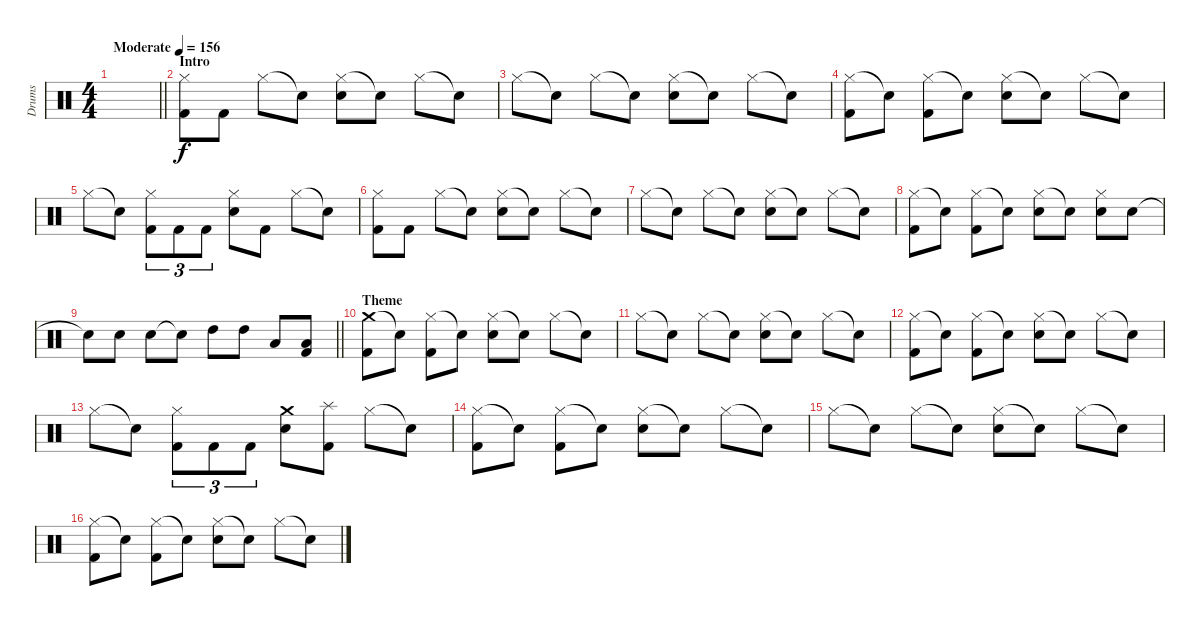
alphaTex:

\track ("Drums" "Drums") {instrument percussion}
\staff {score}
\articulation defaults
\ts (4 4)
\tempo (156 "Moderate")
\clef neutral
\barLineRight lightlight
\ks c
|
\section ("" "Intro")
("Hi-Hat (closed)" "Kick (hit) 2").8 "Kick (hit) 2".8 "Hi-Hat (closed)".8 "Snare (hit)"{t}.8 ("Hi-Hat (closed)" "Snare (hit) 2").8 "Snare (hit)"{t}.8 "Hi-Hat (closed)".8 "Snare (hit)"{t}.8 |
"Hi-Hat (closed)".8 "Snare (hit)"{t}.8 "Hi-Hat (closed)".8 "Snare (hit)"{t}.8 ("Hi-Hat (closed)" "Snare (hit) 2").8 "Snare (hit)"{t}.8 "Hi-Hat (closed)".8 "Snare (hit)"{t}.8 |
("Hi-Hat (closed)" "Kick (hit) 2").8 "Snare (hit)"{t}.8 ("Hi-Hat (closed)" "Kick (hit) 2").8 "Snare (hit)"{t}.8 ("Hi-Hat (closed)" "Snare (hit) 2").8 "Snare (hit)"{t}.8 "Hi-Hat (closed)".8 "Snare (hit)"{t}.8 |
"Hi-Hat (closed)".8 "Snare (hit)"{t}.8 ("Hi-Hat (closed)" "Kick (hit) 2").8{tu (3 2)} "Kick (hit) 2".8{tu (3 2)} "Kick (hit) 2".8{tu (3 2)} ("Hi-Hat (closed)" "Snare (hit) 2").8 "Kick (hit) 2".8 "Hi-Hat (closed)".8 "Snare (hit)"{t}.8 |
("Hi-Hat (closed)" "Kick (hit) 2").8 "Kick (hit) 2".8 "Hi-Hat (closed)".8 "Snare (hit)"{t}.8 ("Hi-Hat (closed)" "Snare (hit) 2").8 "Snare (hit)"{t}.8 "Hi-Hat (closed)".8 "Snare (hit)"{t}.8 |
"Hi-Hat (closed)".8 "Snare (hit)"{t}.8 "Hi-Hat (closed)".8 "Snare (hit)"{t}.8 ("Hi-Hat (closed)" "Snare (hit) 2").8 "Snare (hit)"{t}.8 "Hi-Hat (closed)".8 "Snare (hit)"{t}.8 |
("Hi-Hat (closed)" "Kick (hit) 2").8 "Snare (hit)"{t}.8 ("Hi-Hat (closed)" "Kick (hit) 2").8 "Snare (hit)"{t}.8 ("Hi-Hat (closed)" "Snare (hit) 2").8 "Snare (hit)"{t}.8 ("Hi-Hat (closed)" "Snare (hit) 2").8 "Snare (hit) 2".8 |
\barLineRight lightlight "Snare (hit)"{t}.8 "Snare (hit) 2".8 "Snare (hit) 2".8 "Snare (hit)"{t}.8 "High Tom (hit)".8 "High Tom (hit)".8 "Low Tom (hit)".8
("Low Tom (hit)" "Kick (hit) 2").8 |
\section ("" "Theme")
("Crash medium (hit)" "Kick (hit) 2").8 "Snare (hit)"{t}.8 ("Hi-Hat (closed)" "Kick (hit) 2").8 "Snare (hit)"{t}.8 ("Hi-Hat (closed)" "Snare (hit) 2").8 "Snare (hit)"{t}.8 "Hi-Hat (closed)".8 "Snare (hit)"{t}.8 |
"Hi-Hat (closed)".8 "Snare (hit)"{t}.8 "Hi-Hat (closed)".8 "Snare (hit)"{t}.8 ("Hi-Hat (closed)" "Snare (hit) 2").8 "Snare (hit)"{t}.8 "Hi-Hat (closed)".8 "Snare (hit)"{t}.8 |
("Hi-Hat (closed)" "Kick (hit) 2").8 "Snare (hit)"{t}.8 ("Hi-Hat (closed)" "Kick (hit) 2").8 "Snare (hit)"{t}.8 ("Hi-Hat (closed)" "Snare (hit) 2").8 "Snare (hit)"{t}.8 "Hi-Hat (closed)".8 "Snare (hit)"{t}.8 |
"Hi-Hat (closed)".8 "Snare (hit)"{t}.8 ("Hi-Hat (closed)" "Kick (hit) 2").8{tu (3 2)} "Kick (hit) 2".8{tu (3 2)} "Kick (hit) 2".8{tu (3 2)} ("Crash medium (hit)" "Snare (hit) 2").8 ("Splash (hit)" "Kick (hit) 2").8 "Hi-Hat (closed)".8 "Snare (hit)"{t}.8 |
("Hi-Hat (closed)" "Kick (hit) 2").8 "Snare (hit)"{t}.8 ("Hi-Hat (closed)" "Kick (hit) 2").8 "Snare (hit)"{t}.8 ("Hi-Hat (closed)" "Snare (hit) 2").8 "Snare (hit)"{t}.8 "Hi-Hat (closed)".8 "Snare (hit)"{t}.8 |
"Hi-Hat (closed)".8 "Snare (hit)"{t}.8 "Hi-Hat (closed)".8 "Snare (hit)"{t}.8 ("Hi-Hat (closed)" "Snare (hit) 2").8 "Snare (hit)"{t}.8 "Hi-Hat (closed)".8 "Snare (hit)"{t}.8 |
("Hi-Hat (closed)" "Kick (hit) 2").8 "Snare (hit)"{t}.8 ("Hi-Hat (closed)" "Kick (hit) 2").8 "Snare (hit)"{t}.8 ("Hi-Hat (closed)" "Snare (hit) 2").8 "Snare (hit)"{t}.8 "Hi-Hat (closed)".8 "Snare (hit)"{t}.8
